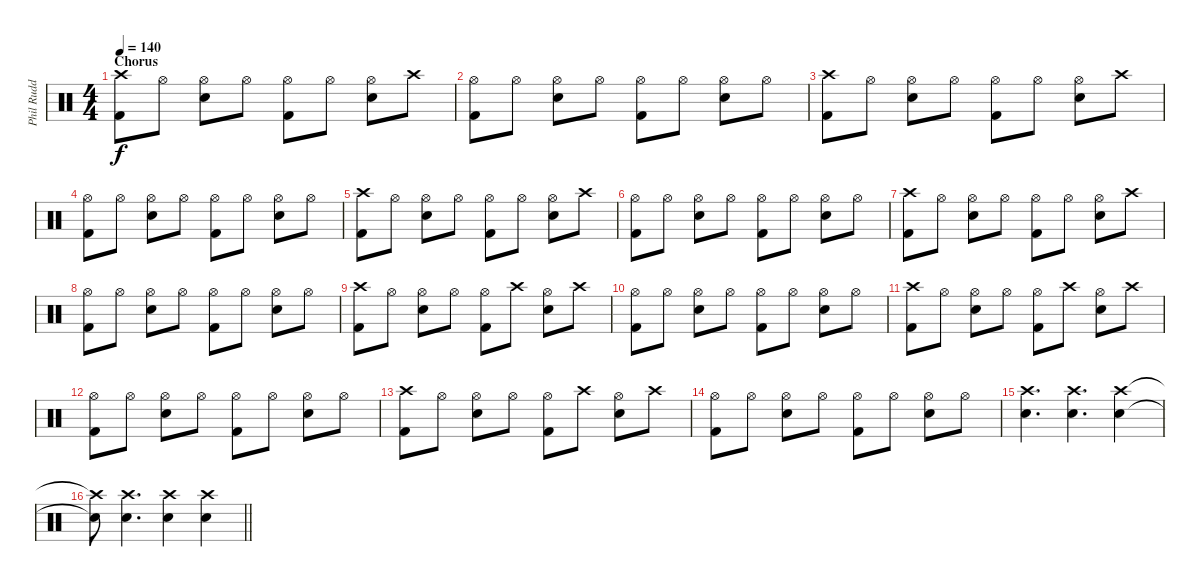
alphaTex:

\track ("Phil Rudd" "Phil Rudd") {instrument percussion}
\staff {score}
\articulation defaults
\ts (4 4)
\section ("" "Chorus")
\tempo 140
\clef neutral
\ks c
("Crash high (hit)" "Kick (hit) 2").8{dy f} "Hi-Hat (open)".8 ("Hi-Hat (open)" "Snare (hit) 2").8 "Hi-Hat (open)".8 ("Hi-Hat (open)" "Kick (hit) 2").8 "Hi-Hat (open)".8 ("Hi-Hat (open)" "Snare (hit) 2").8 "Crash high (hit)".8 |
("Hi-Hat (open)" "Kick (hit) 2").8 "Hi-Hat (open)".8 ("Hi-Hat (open)" "Snare (hit) 2").8 "Hi-Hat (open)".8 ("Hi-Hat (open)" "Kick (hit) 2").8 "Hi-Hat (open)".8 ("Hi-Hat (open)" "Snare (hit) 2").8 "Hi-Hat (open)".8 |
("Crash high (hit)" "Kick (hit) 2").8 "Hi-Hat (open)".8 ("Hi-Hat (open)" "Snare (hit) 2").8 "Hi-Hat (open)".8 ("Hi-Hat (open)" "Kick (hit) 2").8 "Hi-Hat (open)".8 ("Hi-Hat (open)" "Snare (hit) 2").8 "Crash high (hit)".8 |
("Hi-Hat (open)" "Kick (hit) 2").8 "Hi-Hat (open)".8 ("Hi-Hat (open)" "Snare (hit) 2").8 "Hi-Hat (open)".8 ("Hi-Hat (open)" "Kick (hit) 2").8 "Hi-Hat (open)".8 ("Hi-Hat (open)" "Snare (hit) 2").8 "Hi-Hat (open)".8 |
("Crash high (hit)" "Kick (hit) 2").8 "Hi-Hat (open)".8 ("Hi-Hat (open)" "Snare (hit) 2").8 "Hi-Hat (open)".8 ("Hi-Hat (open)" "Kick (hit) 2").8 "Hi-Hat (open)".8 ("Hi-Hat (open)" "Snare (hit) 2").8 "Crash high (hit)".8 |
("Hi-Hat (open)" "Kick (hit) 2").8 "Hi-Hat (open)".8 ("Hi-Hat (open)" "Snare (hit) 2").8 "Hi-Hat (open)".8 ("Hi-Hat (open)" "Kick (hit) 2").8 "Hi-Hat (open)".8 ("Hi-Hat (open)" "Snare (hit) 2").8 "Hi-Hat (open)".8 |
("Crash high (hit)" "Kick (hit) 2").8 "Hi-Hat (open)".8 ("Hi-Hat (open)" "Snare (hit) 2").8 "Hi-Hat (open)".8 ("Hi-Hat (open)" "Kick (hit) 2").8 "Hi-Hat (open)".8 ("Hi-Hat (open)" "Snare (hit) 2").8 "Crash high (hit)".8 |
("Hi-Hat (open)" "Kick (hit) 2").8 "Hi-Hat (open)".8 ("Hi-Hat (open)" "Snare (hit) 2").8 "Hi-Hat (open)".8 ("Hi-Hat (open)" "Kick (hit) 2").8 "Hi-Hat (open)".8 ("Hi-Hat (open)" "Snare (hit) 2").8 "Hi-Hat (open)".8 |
("Crash high (hit)" "Kick (hit) 2").8 "Hi-Hat (open)".8 ("Hi-Hat (open)" "Snare (hit) 2").8 "Hi-Hat (open)".8 ("Hi-Hat (open)" "Kick (hit) 2").8 "Crash high (hit)".8 ("Hi-Hat (open)" "Snare (hit) 2").8 "Crash high (hit)".8 |
("Hi-Hat (open)" "Kick (hit) 2").8 "Hi-Hat (open)".8 ("Hi-Hat (open)" "Snare (hit) 2").8 "Hi-Hat (open)".8 ("Hi-Hat (open)" "Kick (hit) 2").8 "Hi-Hat (open)".8 ("Hi-Hat (open)" "Snare (hit) 2").8 "Hi-Hat (open)".8 |
("Crash high (hit)" "Kick (hit) 2").8 "Hi-Hat (open)".8 ("Hi-Hat (open)" "Snare (hit) 2").8 "Hi-Hat (open)".8 ("Hi-Hat (open)" "Kick (hit) 2").8 "Crash high (hit)".8 ("Hi-Hat (open)" "Snare (hit) 2").8 "Crash high (hit)".8 |
("Hi-Hat (open)" "Kick (hit) 2").8 "Hi-Hat (open)".8 ("Hi-Hat (open)" "Snare (hit) 2").8 "Hi-Hat (open)".8 ("Hi-Hat (open)" "Kick (hit) 2").8 "Hi-Hat (open)".8 ("Hi-Hat (open)" "Snare (hit) 2").8 "Hi-Hat (open)".8 |
("Crash high (hit)" "Kick (hit) 2").8 "Hi-Hat (open)".8 ("Hi-Hat (open)" "Snare (hit) 2").8 "Hi-Hat (open)".8 ("Hi-Hat (open)" "Kick (hit) 2").8 "Crash high (hit)".8 ("Hi-Hat (open)" "Snare (hit) 2").8 "Crash high (hit)".8 |
("Hi-Hat (open)" "Kick (hit) 2").8 "Hi-Hat (open)".8 ("Hi-Hat (open)" "Snare (hit) 2").8 "Hi-Hat (open)".8 ("Hi-Hat (open)" "Kick (hit) 2").8 "Hi-Hat (open)".8 ("Hi-Hat (open)" "Snare (hit) 2").8 "Hi-Hat (open)".8 |
("Crash high (hit)" "Snare (hit) 2").4{d} ("Crash high (hit)" "Snare (hit) 2").4{d} ("Crash high (hit)" "Snare (hit) 2").4 |
\barLineRight lightlight
("Crash high (hit)"{t} "Snare (hit) 2"{t}).8 ("Crash high (hit)" "Snare (hit) 2").4{d} ("Crash high (hit)" "Snare (hit) 2").4 ("Crash high (hit)" "Snare (hit) 2").4
